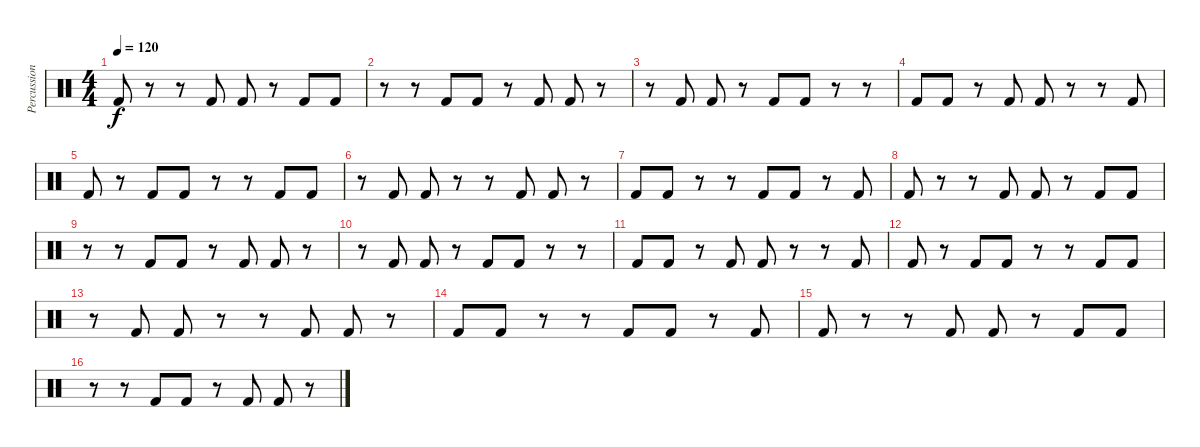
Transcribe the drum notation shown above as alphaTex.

\track ("Percussion" "Percussion") {instrument percussion}
\staff {score}
\articulation defaults
\ts (4 4)
\tempo 120
\clef neutral
\ks c "Kick (hit) 2".8{dy f}
r.8 r.8 "Kick (hit) 2".8 "Kick (hit) 2".8 r.8 "Kick (hit) 2".8 "Kick (hit) 2".8 |
r.8 r.8 "Kick (hit) 2".8 "Kick (hit) 2".8 r.8 "Kick (hit) 2".8 "Kick (hit) 2".8 r.8 |
r.8 "Kick (hit) 2".8 "Kick (hit) 2".8 r.8 "Kick (hit) 2".8 "Kick (hit) 2".8 r.8 r.8 |
"Kick (hit) 2".8 "Kick (hit) 2".8 r.8 "Kick (hit) 2".8 "Kick (hit) 2".8 r.8 r.8 "Kick (hit) 2".8 |
"Kick (hit) 2".8 r.8 "Kick (hit) 2".8 "Kick (hit) 2".8 r.8 r.8 "Kick (hit) 2".8 "Kick (hit) 2".8 |
r.8 "Kick (hit) 2".8 "Kick (hit) 2".8 r.8 r.8 "Kick (hit) 2".8 "Kick (hit) 2".8 r.8 |
"Kick (hit) 2".8 "Kick (hit) 2".8 r.8 r.8 "Kick (hit) 2".8 "Kick (hit) 2".8 r.8 "Kick (hit) 2".8 |
"Kick (hit) 2".8 r.8 r.8 "Kick (hit) 2".8 "Kick (hit) 2".8 r.8 "Kick (hit) 2".8 "Kick (hit) 2".8 |
r.8 r.8 "Kick (hit) 2".8 "Kick (hit) 2".8 r.8 "Kick (hit) 2".8 "Kick (hit) 2".8 r.8 |
r.8 "Kick (hit) 2".8 "Kick (hit) 2".8 r.8 "Kick (hit) 2".8 "Kick (hit) 2".8 r.8 r.8 |
"Kick (hit) 2".8 "Kick (hit) 2".8 r.8 "Kick (hit) 2".8 "Kick (hit) 2".8 r.8 r.8 "Kick (hit) 2".8 |
"Kick (hit) 2".8 r.8 "Kick (hit) 2".8 "Kick (hit) 2".8 r.8 r.8 "Kick (hit) 2".8 "Kick (hit) 2".8 |
r.8 "Kick (hit) 2".8 "Kick (hit) 2".8 r.8 r.8 "Kick (hit) 2".8 "Kick (hit) 2".8 r.8 |
"Kick (hit) 2".8 "Kick (hit) 2".8 r.8 r.8 "Kick (hit) 2".8 "Kick (hit) 2".8 r.8 "Kick (hit) 2".8 |
"Kick (hit) 2".8 r.8 r.8 "Kick (hit) 2".8 "Kick (hit) 2".8 r.8 "Kick (hit) 2".8 "Kick (hit) 2".8 |
r.8 r.8 "Kick (hit) 2".8 "Kick (hit) 2".8 r.8 "Kick (hit) 2".8 "Kick (hit) 2".8 r.8
